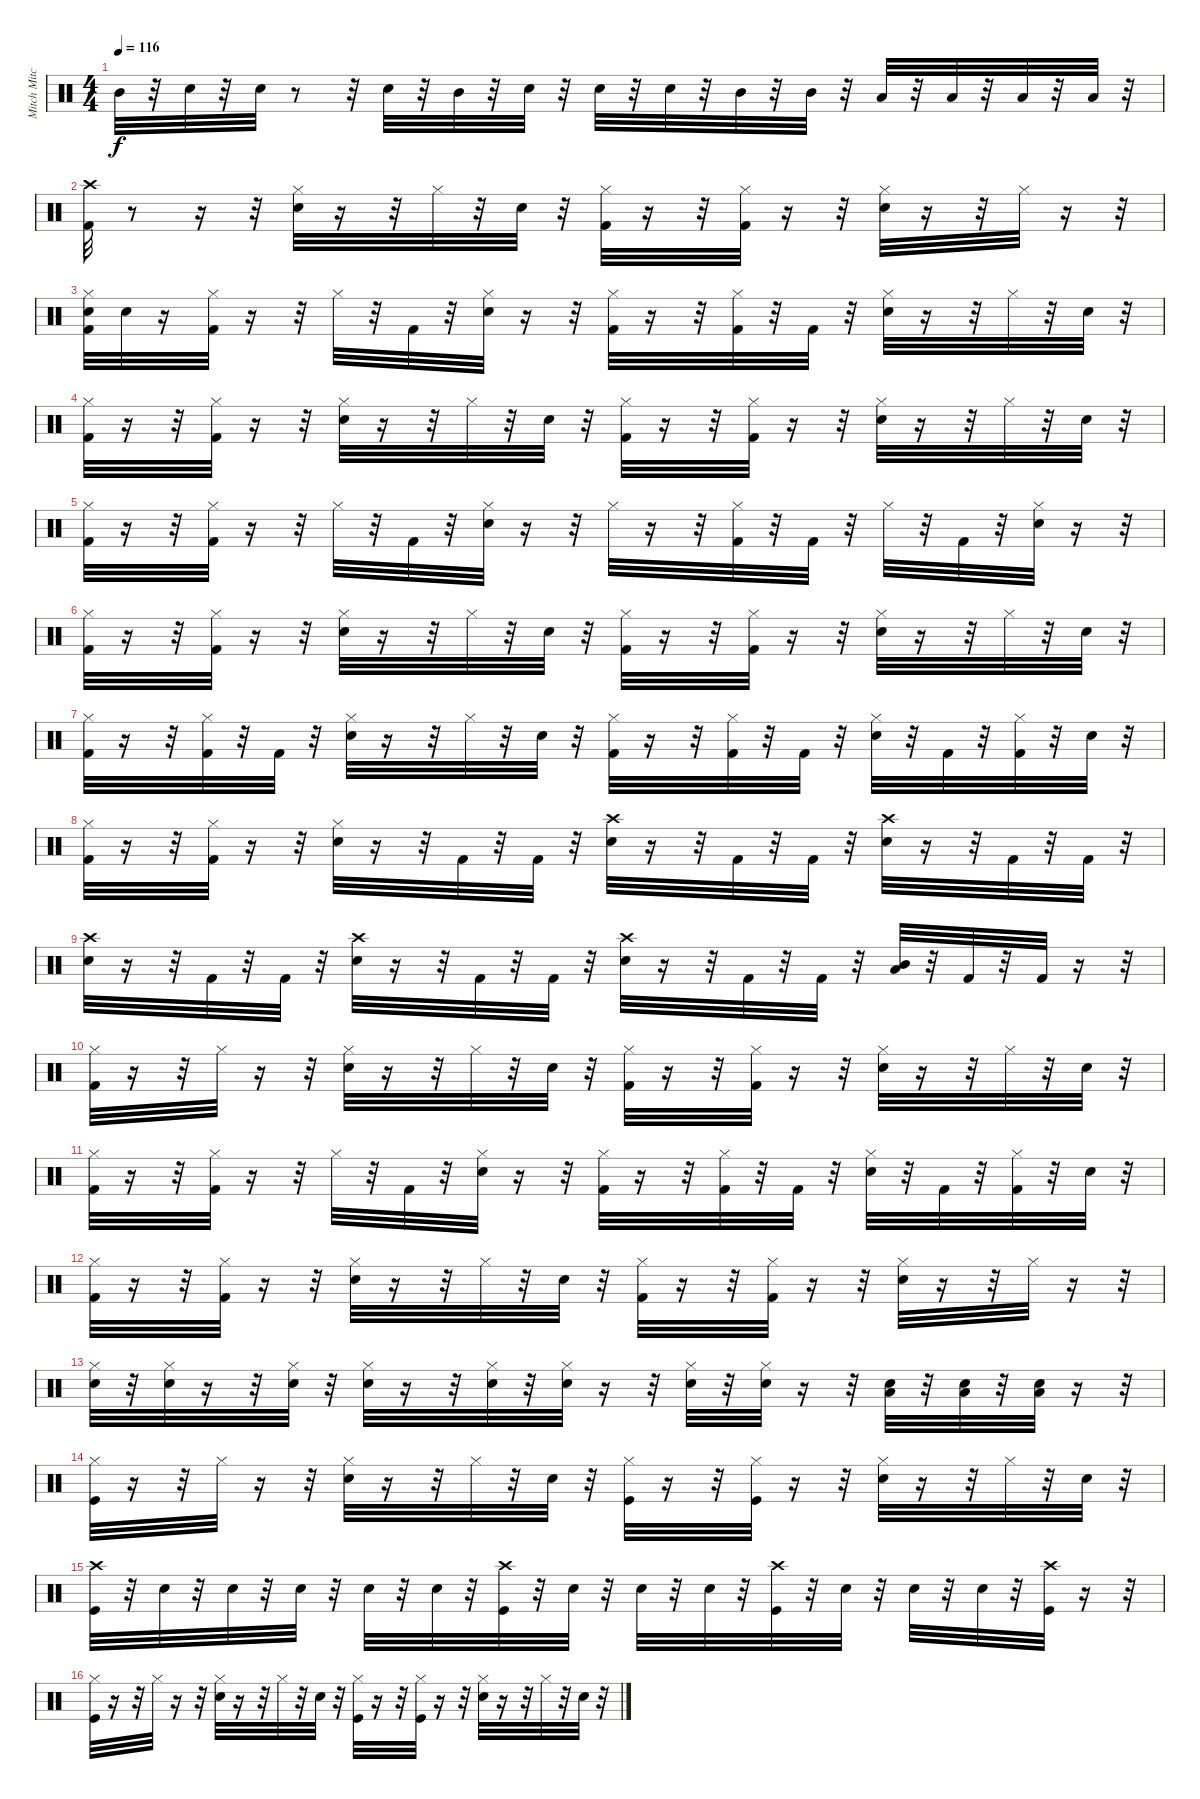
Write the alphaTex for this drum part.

\track ("Mitch Mitchell" "Mitch Mitc") {instrument percussion}
\staff {score}
\articulation defaults
\ts (4 4)
\tempo 116
\clef neutral
\ks c "Mid Tom (hit)".32{dy f}
r.32 "Snare (hit) 2".32 r.32 "Snare (hit) 2".32 r.8 r.32 "Snare (hit) 2".32 r.32 "Mid Tom (hit)".32 r.32 "Snare (hit) 2".32 r.32 "Snare (hit) 2".32 r.32 "Snare (hit) 2".32 r.32 "Mid Tom (hit)".32 r.32 "Mid Tom (hit)".32 r.32 "Low Tom (hit)".32 r.32 "Low Tom (hit)".32 r.32 "Low Floor Tom (hit)".32 r.32 "Low Floor Tom (hit)".32 r.32 |
("Crash high (hit)" "Kick (hit) 2").32 r.8 r.16 r.32 ("Hi-Hat (closed)" "Snare (hit) 2").32 r.16 r.32 "Hi-Hat (closed)".32 r.32 "Snare (hit) 2".32 r.32 ("Hi-Hat (closed)" "Kick (hit) 2").32 r.16 r.32 ("Hi-Hat (closed)" "Kick (hit) 2").32 r.16 r.32 ("Hi-Hat (closed)" "Snare (hit) 2").32 r.16 r.32 "Hi-Hat (closed)".32 r.16 r.32 |
("Hi-Hat (closed)" "Snare (hit) 2" "Kick (hit) 2").32 "Snare (hit) 2".32 r.16 ("Hi-Hat (closed)" "Kick (hit) 2").32 r.16 r.32 "Hi-Hat (closed)".32 r.32 "Kick (hit) 2".32 r.32 ("Hi-Hat (closed)" "Snare (hit) 2").32 r.16 r.32 ("Hi-Hat (closed)" "Kick (hit) 2").32 r.16 r.32 ("Hi-Hat (closed)" "Kick (hit) 2").32 r.32 "Kick (hit) 2".32 r.32 ("Hi-Hat (closed)" "Snare (hit) 2").32 r.16 r.32 "Hi-Hat (closed)".32 r.32 "Snare (hit) 2".32 r.32 |
("Kick (hit) 2" "Hi-Hat (closed)").32 r.16 r.32 ("Kick (hit) 2" "Hi-Hat (closed)").32 r.16 r.32 ("Snare (hit) 2" "Hi-Hat (closed)").32 r.16 r.32 "Hi-Hat (closed)".32 r.32 "Snare (hit) 2".32 r.32 ("Kick (hit) 2" "Hi-Hat (closed)").32 r.16 r.32 ("Kick (hit) 2" "Hi-Hat (closed)").32 r.16 r.32 ("Snare (hit) 2" "Hi-Hat (closed)").32 r.16 r.32 "Hi-Hat (closed)".32 r.32 "Snare (hit) 2".32 r.32 |
("Hi-Hat (closed)" "Kick (hit) 2").32 r.16 r.32 ("Hi-Hat (closed)" "Kick (hit) 2").32 r.16 r.32 "Hi-Hat (closed)".32 r.32 "Kick (hit) 2".32 r.32 ("Hi-Hat (closed)" "Snare (hit) 2").32 r.16 r.32 "Hi-Hat (closed)".32 r.16 r.32 ("Hi-Hat (closed)" "Kick (hit) 2").32 r.32 "Kick (hit) 2".32 r.32 "Hi-Hat (closed)".32 r.32 "Kick (hit) 2".32 r.32 ("Hi-Hat (closed)" "Snare (hit) 2").32 r.16 r.32 |
("Hi-Hat (closed)" "Kick (hit) 2").32 r.16 r.32 ("Hi-Hat (closed)" "Kick (hit) 2").32 r.16 r.32 ("Hi-Hat (closed)" "Snare (hit) 2").32 r.16 r.32 "Hi-Hat (closed)".32 r.32 "Snare (hit) 2".32 r.32 ("Hi-Hat (closed)" "Kick (hit) 2").32 r.16 r.32 ("Hi-Hat (closed)" "Kick (hit) 2").32 r.16 r.32 ("Hi-Hat (closed)" "Snare (hit) 2").32 r.16 r.32 "Hi-Hat (closed)".32 r.32 "Snare (hit) 2".32 r.32 |
("Hi-Hat (closed)" "Kick (hit) 2").32 r.16 r.32 ("Kick (hit) 2" "Hi-Hat (closed)").32 r.32 "Kick (hit) 2".32 r.32 ("Hi-Hat (closed)" "Snare (hit) 2").32 r.16 r.32 "Hi-Hat (closed)".32 r.32 "Snare (hit) 2".32 r.32 ("Hi-Hat (closed)" "Kick (hit) 2").32 r.16 r.32 ("Hi-Hat (closed)" "Kick (hit) 2").32 r.32 "Kick (hit) 2".32 r.32 ("Hi-Hat (closed)" "Snare (hit) 2").32 r.32 "Kick (hit) 2".32 r.32 ("Hi-Hat (closed)" "Kick (hit) 2").32 r.32 "Snare (hit) 2".32 r.32 |
("Hi-Hat (closed)" "Kick (hit) 2").32 r.16 r.32 ("Hi-Hat (closed)" "Kick (hit) 2").32 r.16 r.32 ("Hi-Hat (closed)" "Snare (hit) 2").32 r.16 r.32 "Kick (hit) 2".32 r.32 "Kick (hit) 2".32 r.32 ("Snare (hit) 2" "Crash high (hit)").32 r.16 r.32 "Kick (hit) 2".32 r.32 "Kick (hit) 2".32 r.32 ("Crash high (hit)" "Snare (hit) 2").32 r.16 r.32 "Kick (hit) 2".32 r.32 "Kick (hit) 2".32 r.32 |
("Snare (hit) 2" "Crash high (hit)").32 r.16 r.32 "Kick (hit) 2".32 r.32 "Kick (hit) 2".32 r.32 ("Snare (hit) 2" "Crash high (hit)").32 r.16 r.32 "Kick (hit) 2".32 r.32 "Kick (hit) 2".32 r.32 ("Snare (hit) 2" "Crash high (hit)").32 r.16 r.32 "Kick (hit) 2".32 r.32 "Kick (hit) 2".32 r.32 ("Mid Tom (hit)" "Low Floor Tom (hit)").32 r.32 "Kick (hit) 2".32 r.32 "Kick (hit) 2".32 r.16 r.32 |
("Kick (hit) 2" "Hi-Hat (closed)").32 r.16 r.32 "Hi-Hat (closed)".32 r.16 r.32 ("Snare (hit) 2" "Hi-Hat (closed)").32 r.16 r.32 "Hi-Hat (closed)".32 r.32 "Snare (hit) 2".32 r.32 ("Kick (hit) 2" "Hi-Hat (closed)").32 r.16 r.32 ("Kick (hit) 2" "Hi-Hat (closed)").32 r.16 r.32 ("Snare (hit) 2" "Hi-Hat (closed)").32 r.16 r.32 "Hi-Hat (closed)".32 r.32 "Snare (hit) 2".32 r.32 |
("Kick (hit) 2" "Hi-Hat (closed)").32 r.16 r.32 ("Kick (hit) 2" "Hi-Hat (closed)").32 r.16 r.32 "Hi-Hat (closed)".32 r.32 "Kick (hit) 2".32 r.32 ("Snare (hit) 2" "Hi-Hat (closed)").32 r.16 r.32 ("Kick (hit) 2" "Hi-Hat (closed)").32 r.16 r.32 ("Kick (hit) 2" "Hi-Hat (closed)").32 r.32 "Kick (hit) 2".32 r.32 ("Snare (hit) 2" "Hi-Hat (closed)").32 r.32 "Kick (hit) 2".32 r.32 ("Kick (hit) 2" "Hi-Hat (closed)").32 r.32 "Snare (hit) 2".32 r.32 |
("Kick (hit) 2" "Hi-Hat (closed)").32 r.16 r.32 ("Kick (hit) 2" "Hi-Hat (closed)").32 r.16 r.32 ("Snare (hit) 2" "Hi-Hat (closed)").32 r.16 r.32 "Hi-Hat (closed)".32 r.32 "Snare (hit) 2".32 r.32 ("Kick (hit) 2" "Hi-Hat (closed)").32 r.16 r.32 ("Kick (hit) 2" "Hi-Hat (closed)").32 r.16 r.32 ("Snare (hit) 2" "Hi-Hat (closed)").32 r.16 r.32 "Hi-Hat (closed)".32 r.16 r.32 |
("Hi-Hat (closed)" "Snare (hit) 2").32 r.32 ("Hi-Hat (closed)" "Snare (hit) 2").32 r.16 r.32 ("Hi-Hat (closed)" "Snare (hit) 2").32 r.32 ("Hi-Hat (closed)" "Snare (hit) 2").32 r.16 r.32 ("Hi-Hat (closed)" "Snare (hit) 2").32 r.32 ("Hi-Hat (closed)" "Snare (hit) 2").32 r.16 r.32 ("Hi-Hat (closed)" "Snare (hit) 2").32 r.32 ("Hi-Hat (closed)" "Snare (hit) 2").32 r.16 r.32 ("Low Floor Tom (hit)" "Snare (hit) 2").32 r.32 ("Low Floor Tom (hit)" "Snare (hit) 2").32 r.32 ("Low Floor Tom (hit)" "Snare (hit) 2").32 r.16 r.32 |
("Kick (hit)" "Hi-Hat (closed)").32 r.16 r.32 "Hi-Hat (closed)".32 r.16 r.32 ("Snare (hit) 2" "Hi-Hat (closed)").32 r.16 r.32 "Hi-Hat (closed)".32 r.32 "Snare (hit) 2".32 r.32 ("Kick (hit)" "Hi-Hat (closed)").32 r.16 r.32 ("Kick (hit)" "Hi-Hat (closed)").32 r.16 r.32 ("Snare (hit) 2" "Hi-Hat (closed)").32 r.16 r.32 "Hi-Hat (closed)".32 r.32 "Snare (hit) 2".32 r.32 |
("Kick (hit)" "Crash high (hit)").32 r.32 "Snare (hit) 2".32 r.32 "Snare (hit) 2".32 r.32 "Snare (hit) 2".32 r.32 "Snare (hit) 2".32 r.32 "Snare (hit) 2".32 r.32 ("Crash high (hit)" "Kick (hit)").32 r.32 "Snare (hit) 2".32 r.32 "Snare (hit) 2".32 r.32 "Snare (hit) 2".32 r.32 ("Crash high (hit)" "Kick (hit)").32 r.32 "Snare (hit) 2".32 r.32 "Snare (hit) 2".32 r.32 "Snare (hit) 2".32 r.32 ("Crash high (hit)" "Kick (hit)").32 r.16 r.32 |
("Kick (hit)" "Hi-Hat (closed)").32 r.16 r.32 "Hi-Hat (closed)".32 r.16 r.32 ("Snare (hit) 2" "Hi-Hat (closed)").32 r.16 r.32 "Hi-Hat (closed)".32 r.32 "Snare (hit) 2".32 r.32 ("Kick (hit)" "Hi-Hat (closed)").32 r.16 r.32 ("Kick (hit)" "Hi-Hat (closed)").32 r.16 r.32 ("Snare (hit) 2" "Hi-Hat (closed)").32 r.16 r.32 "Hi-Hat (closed)".32 r.32 "Snare (hit) 2".32 r.32
